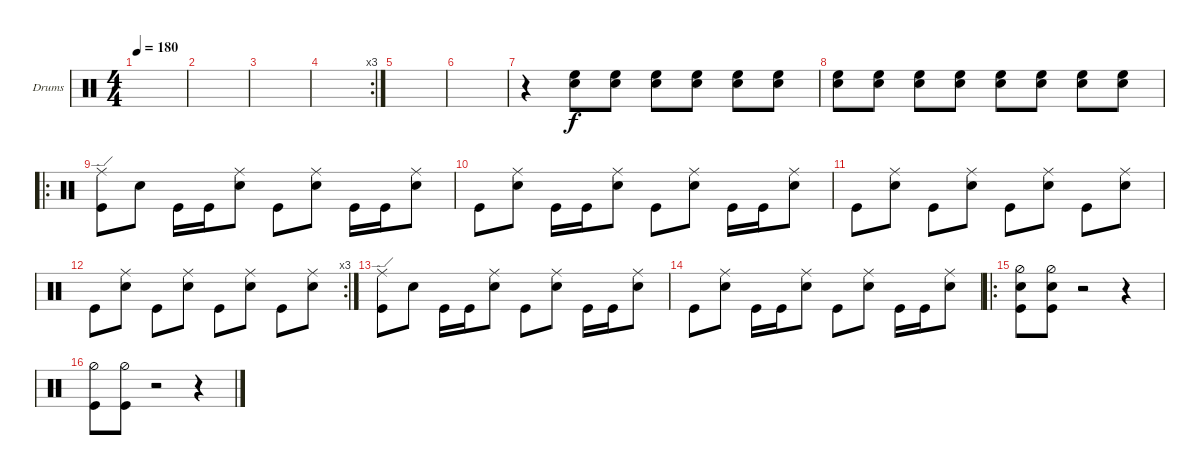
\defaultSystemsLayout 4
\bracketExtendMode groupsimilarinstruments
\firstSystemTrackNameOrientation horizontal
\otherSystemsTrackNameOrientation horizontal
\track ("Drumkit" "Drums") {instrument percussion}
\staff {score}
\articulation defaults
\ts (4 4)
\tempo 180
\clef neutral
\scale
0.474178
\ks c
|
\scale
0.262911 |
\scale
0.262911 |
\rc 3
\scale
0.356322 |
|
|
r.4 ("High Floor Tom (hit)" "Snare (hit) 2").8 ("High Floor Tom (hit)" "Snare (hit) 2").8 ("High Floor Tom (hit)" "Snare (hit) 2").8 ("High Floor Tom (hit)" "Snare (hit) 2").8 ("High Floor Tom (hit)" "Snare (hit) 2").8 ("High Floor Tom (hit)" "Snare (hit) 2").8 |
\scale
0.311111 ("Snare (hit) 2" "High Floor Tom (hit)").8 ("High Floor Tom (hit)" "Snare (hit) 2").8 ("Snare (hit) 2" "High Floor Tom (hit)").8 ("High Floor Tom (hit)" "Snare (hit) 2").8 ("Snare (hit) 2" "High Floor Tom (hit)").8 ("High Floor Tom (hit)" "Snare (hit) 2").8 ("Snare (hit) 2" "High Floor Tom (hit)").8 ("High Floor Tom (hit)" "Snare (hit) 2").8 |
\ro
\scale
0.377778 ("Kick (hit)" "Ride (edge)").8 "Snare (hit) 2".8 "Kick (hit)".16 "Kick (hit)".16 ("Snare (hit) 2" "Ride (middle)").8 "Kick (hit)".8 ("Snare (hit) 2" "Ride (middle)").8 "Kick (hit)".16 "Kick (hit)".16 ("Snare (hit) 2" "Ride (middle)").8 |
"Kick (hit)".8 ("Snare (hit) 2" "Ride (middle)").8 "Kick (hit)".16 "Kick (hit)".16 ("Snare (hit) 2" "Ride (middle)").8 "Kick (hit)".8 ("Snare (hit) 2" "Ride (middle)").8 "Kick (hit)".16 "Kick (hit)".16 ("Snare (hit) 2" "Ride (middle)").8 |
"Kick (hit)".8 ("Snare (hit) 2" "Ride (middle)").8 "Kick (hit)".8 ("Snare (hit) 2" "Ride (middle)").8 "Kick (hit)".8 ("Snare (hit) 2" "Ride (middle)").8 "Kick (hit)".8 ("Snare (hit) 2" "Ride (middle)").8 |
\rc 3 "Kick (hit)".8
("Snare (hit) 2" "Ride (middle)").8 "Kick (hit)".8 ("Snare (hit) 2" "Ride (middle)").8 "Kick (hit)".8 ("Snare (hit) 2" "Ride (middle)").8 "Kick (hit)".8 ("Snare (hit) 2" "Ride (middle)").8 |
("Kick (hit)" "Ride (edge)").8 "Snare (hit) 2".8 "Kick (hit)".16 "Kick (hit)".16 ("Snare (hit) 2" "Ride (middle)").8 "Kick (hit)".8 ("Snare (hit) 2" "Ride (middle)").8 "Kick (hit)".16 "Kick (hit)".16 ("Snare (hit) 2" "Ride (middle)").8 |
"Kick (hit)".8 ("Snare (hit) 2" "Ride (middle)").8 "Kick (hit)".16 "Kick (hit)".16 ("Snare (hit) 2" "Ride (middle)").8 "Kick (hit)".8 ("Snare (hit) 2" "Ride (middle)").8 "Kick (hit)".16 "Kick (hit)".16 ("Snare (hit) 2" "Ride (middle)").8 |
\ro
("Hi-Hat (half)" "Snare (hit) 2" "Kick (hit)").8 ("Hi-Hat (half)" "Snare (hit) 2" "Kick (hit)").8 r.2 r.4 |
("Hi-Hat (half)" "Kick (hit)").8 ("Hi-Hat (half)" "Kick (hit)").8 r.2 r.4
